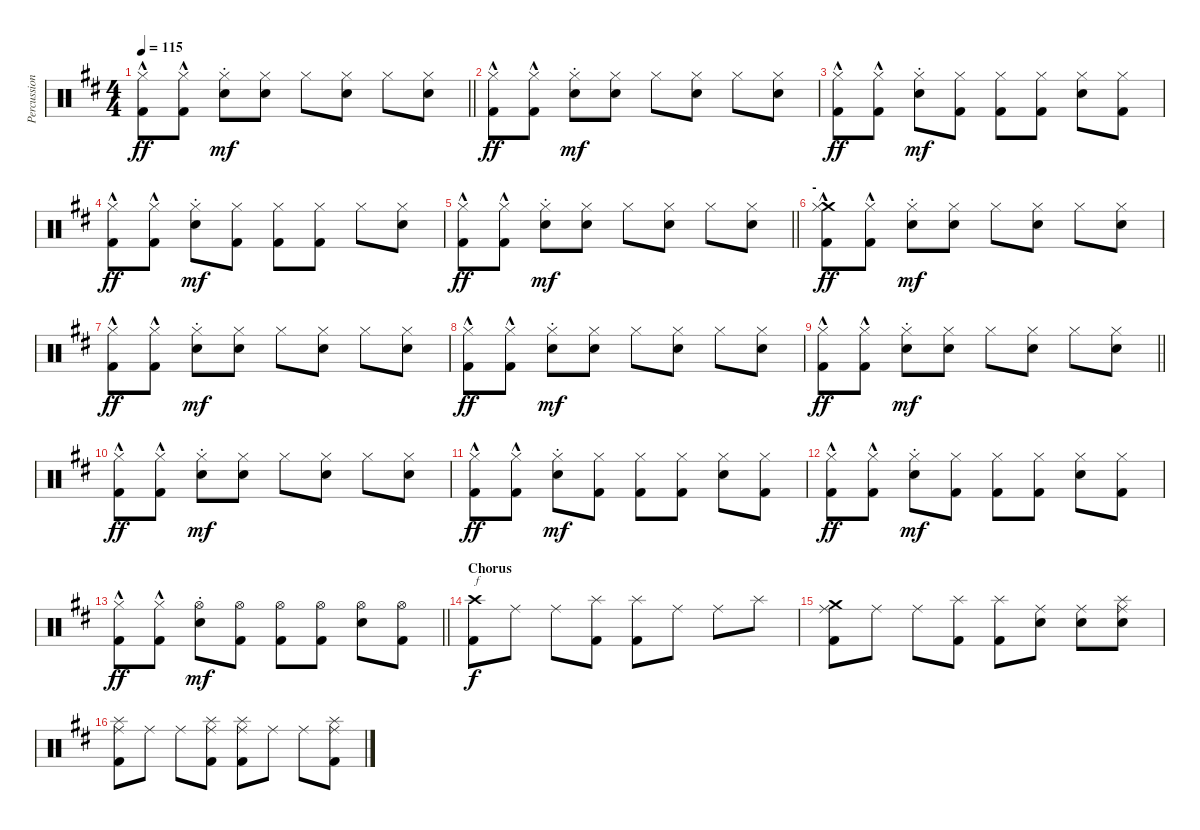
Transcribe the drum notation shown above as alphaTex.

\track ("Percussion" "Percussion") {instrument percussion}
\staff {score}
\articulation defaults
\ts (4 4)
\tempo 115
\clef neutral
\barLineRight lightlight
\ks bminor
("Hi-Hat (closed)" "Kick (hit) 2"{hac}).8{dy ff} ("Hi-Hat (closed)" "Kick (hit) 2"{hac}).8 ("Hi-Hat (closed)"{st} "Snare (hit) 2"{st}).8{dy mf} ("Hi-Hat (closed)" "Snare (hit) 2").8 "Hi-Hat (closed)".8 ("Hi-Hat (closed)" "Snare (hit) 2").8 "Hi-Hat (closed)".8 ("Hi-Hat (closed)" "Snare (hit) 2").8 |
\section ("" "")
("Hi-Hat (closed)" "Kick (hit) 2"{hac}).8{dy ff} ("Hi-Hat (closed)" "Kick (hit) 2"{hac}).8 ("Hi-Hat (closed)"{st} "Snare (hit) 2"{st}).8{dy mf} ("Hi-Hat (closed)" "Snare (hit) 2").8 "Hi-Hat (closed)".8 ("Hi-Hat (closed)" "Snare (hit) 2").8 "Hi-Hat (closed)".8 ("Hi-Hat (closed)" "Snare (hit) 2").8 |
("Hi-Hat (closed)" "Kick (hit) 2"{hac}).8{dy ff} ("Hi-Hat (closed)" "Kick (hit) 2"{hac}).8 ("Hi-Hat (closed)"{st} "Snare (hit) 2"{st}).8{dy mf} ("Hi-Hat (closed)" "Kick (hit) 2").8 ("Hi-Hat (closed)" "Kick (hit) 2").8 ("Hi-Hat (closed)" "Kick (hit) 2").8 ("Hi-Hat (closed)" "Snare (hit) 2").8 ("Hi-Hat (closed)" "Kick (hit) 2").8 |
("Hi-Hat (closed)" "Kick (hit) 2"{hac}).8{dy ff} ("Hi-Hat (closed)" "Kick (hit) 2"{hac}).8 ("Hi-Hat (closed)"{st} "Snare (hit) 2"{st}).8{dy mf} ("Hi-Hat (closed)" "Kick (hit) 2").8 ("Hi-Hat (closed)" "Kick (hit) 2").8 ("Hi-Hat (closed)" "Kick (hit) 2").8 "Hi-Hat (closed)".8 ("Hi-Hat (closed)" "Snare (hit) 2").8 |
\barLineRight lightlight
("Hi-Hat (closed)" "Kick (hit) 2"{hac}).8{dy ff} ("Hi-Hat (closed)" "Kick (hit) 2"{hac}).8 ("Hi-Hat (closed)"{st} "Snare (hit) 2"{st}).8{dy mf} ("Hi-Hat (closed)" "Snare (hit) 2").8 "Hi-Hat (closed)".8 ("Hi-Hat (closed)" "Snare (hit) 2").8 "Hi-Hat (closed)".8 ("Hi-Hat (closed)" "Snare (hit) 2").8 |
\section ("" "-")
("Crash medium (hit)" "Hi-Hat (closed)" "Kick (hit) 2"{hac}).8{dy ff} ("Hi-Hat (closed)" "Kick (hit) 2"{hac}).8 ("Hi-Hat (closed)"{st} "Snare (hit) 2"{st}).8{dy mf} ("Hi-Hat (closed)" "Snare (hit) 2").8 "Hi-Hat (closed)".8 ("Hi-Hat (closed)" "Snare (hit) 2").8 "Hi-Hat (closed)".8 ("Hi-Hat (closed)" "Snare (hit) 2").8 |
("Hi-Hat (closed)" "Kick (hit) 2"{hac}).8{dy ff} ("Hi-Hat (closed)" "Kick (hit) 2"{hac}).8 ("Hi-Hat (closed)"{st} "Snare (hit) 2"{st}).8{dy mf} ("Hi-Hat (closed)" "Snare (hit) 2").8 "Hi-Hat (closed)".8 ("Hi-Hat (closed)" "Snare (hit) 2").8 "Hi-Hat (closed)".8 ("Hi-Hat (closed)" "Snare (hit) 2").8 |
("Hi-Hat (closed)" "Kick (hit) 2"{hac}).8{dy ff} ("Hi-Hat (closed)" "Kick (hit) 2"{hac}).8 ("Hi-Hat (closed)"{st} "Snare (hit) 2"{st}).8{dy mf} ("Hi-Hat (closed)" "Snare (hit) 2").8 "Hi-Hat (closed)".8 ("Hi-Hat (closed)" "Snare (hit) 2").8 "Hi-Hat (closed)".8 ("Hi-Hat (closed)" "Snare (hit) 2").8 |
\barLineRight lightlight
("Hi-Hat (closed)" "Kick (hit) 2"{hac}).8{dy ff} ("Hi-Hat (closed)" "Kick (hit) 2"{hac}).8 ("Hi-Hat (closed)"{st} "Snare (hit) 2"{st}).8{dy mf} ("Hi-Hat (closed)" "Snare (hit) 2").8 "Hi-Hat (closed)".8 ("Hi-Hat (closed)" "Snare (hit) 2").8 "Hi-Hat (closed)".8 ("Hi-Hat (closed)" "Snare (hit) 2").8 |
\section ("" "")
("Hi-Hat (closed)" "Kick (hit) 2"{hac}).8{dy ff} ("Hi-Hat (closed)" "Kick (hit) 2"{hac}).8 ("Hi-Hat (closed)"{st} "Snare (hit) 2"{st}).8{dy mf} ("Hi-Hat (closed)" "Snare (hit) 2").8 "Hi-Hat (closed)".8 ("Hi-Hat (closed)" "Snare (hit) 2").8 "Hi-Hat (closed)".8 ("Hi-Hat (closed)" "Snare (hit) 2").8 |
("Hi-Hat (closed)" "Kick (hit) 2"{hac}).8{dy ff} ("Hi-Hat (closed)" "Kick (hit) 2"{hac}).8 ("Hi-Hat (closed)"{st} "Snare (hit) 2"{st}).8{dy mf} ("Hi-Hat (closed)" "Kick (hit) 2").8 ("Hi-Hat (closed)" "Kick (hit) 2").8 ("Hi-Hat (closed)" "Kick (hit) 2").8 ("Hi-Hat (closed)" "Snare (hit) 2").8 ("Hi-Hat (closed)" "Kick (hit) 2").8 |
("Hi-Hat (closed)" "Kick (hit) 2"{hac}).8{dy ff} ("Hi-Hat (closed)" "Kick (hit) 2"{hac}).8 ("Hi-Hat (closed)"{st} "Snare (hit) 2"{st}).8{dy mf} ("Hi-Hat (closed)" "Kick (hit) 2").8 ("Hi-Hat (closed)" "Kick (hit) 2").8 ("Hi-Hat (closed)" "Kick (hit) 2").8 ("Hi-Hat (closed)" "Snare (hit) 2").8 ("Hi-Hat (closed)" "Kick (hit) 2").8 |
\barLineRight lightlight
("Hi-Hat (closed)" "Kick (hit) 2"{hac}).8{dy ff} ("Hi-Hat (closed)" "Kick (hit) 2"{hac}).8 ("Hi-Hat (open)"{st} "Snare (hit) 2"{st}).8{dy mf} ("Hi-Hat (open)" "Kick (hit) 2").8 ("Hi-Hat (open)" "Kick (hit) 2").8 ("Hi-Hat (open)" "Kick (hit) 2").8 ("Hi-Hat (open)" "Snare (hit) 2").8 ("Hi-Hat (open)" "Kick (hit) 2").8 |
\section ("" "Chorus")
("Crash high (hit)" "Kick (hit) 2").8{txt "f" dy f} "Ride (middle)".8 "Ride (middle)".8 ("Splash (hit)" "Kick (hit) 2").8 ("Splash (hit)" "Kick (hit) 2").8 "Ride (middle)".8 "Ride (middle)".8 "Splash (hit)".8 |
("Crash medium (hit)" "Ride (middle)" "Kick (hit) 2").8 "Ride (middle)".8 "Ride (middle)".8 ("Splash (hit)" "Kick (hit) 2").8 ("Splash (hit)" "Kick (hit) 2").8 ("Ride (middle)" "Snare (hit) 2").8 ("Ride (middle)" "Snare (hit) 2").8 ("Splash (hit)" "Ride (middle)" "Snare (hit) 2").8 |
("Splash (hit)" "Ride (middle)" "Kick (hit) 2").8 "Ride (middle)".8 "Ride (middle)".8 ("Splash (hit)" "Ride (middle)" "Kick (hit) 2").8 ("Splash (hit)" "Ride (middle)" "Kick (hit) 2").8 "Ride (middle)".8 "Ride (middle)".8 ("Splash (hit)" "Ride (middle)" "Kick (hit) 2").8
